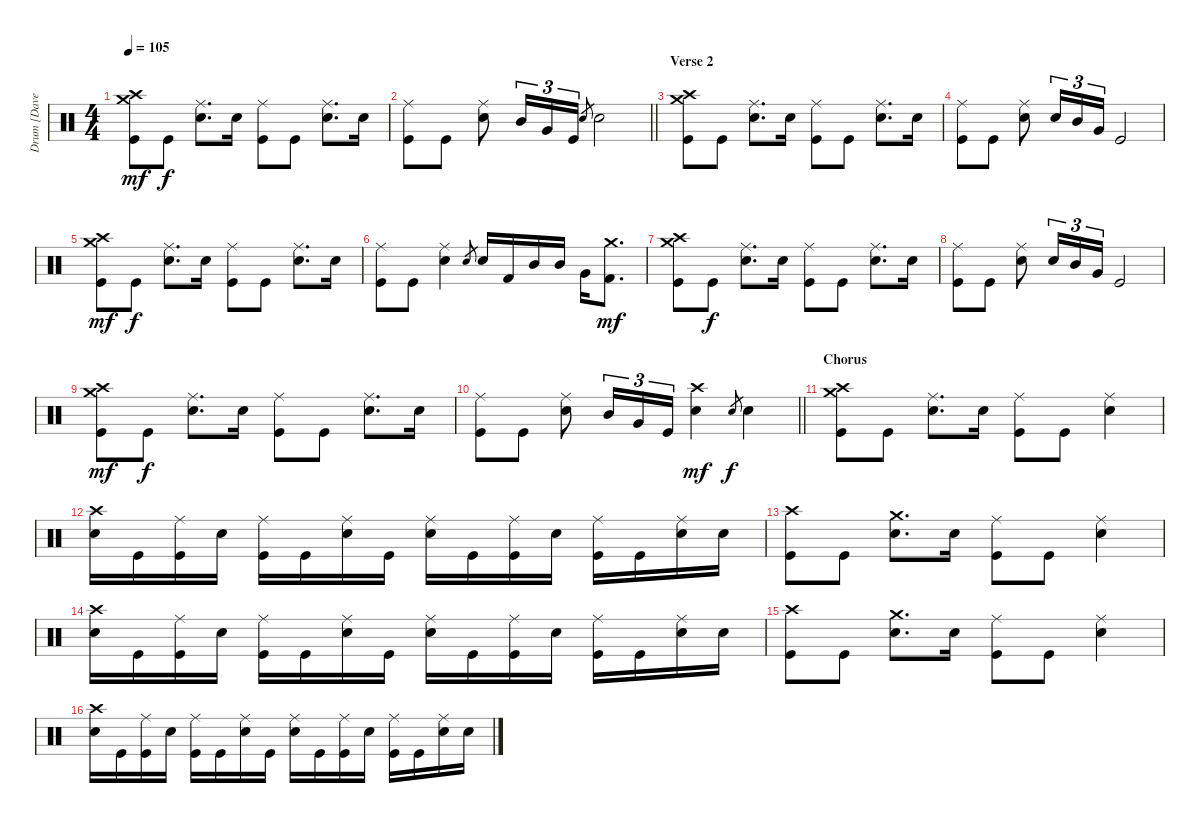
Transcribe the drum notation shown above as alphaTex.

\track ("Drum [Dave Grohl]" "Drum [Dave") {instrument percussion bank 84}
\staff {score}
\articulation defaults
\ts (4 4)
\tempo 105
\clef neutral
\ks c
("Crash high (hit)" "Crash medium (hit)" "Kick (hit)").8{dy mf} "Kick (hit)".8{dy f} ("Ride (middle)" "Electric Snare (hit)").8{d} "Electric Snare (hit)".16 ("Ride (middle)" "Kick (hit)").8 "Kick (hit)".8 ("Ride (middle)" "Electric Snare (hit)").8{d} "Electric Snare (hit)".16 |
\barLineRight lightlight
("Ride (middle)" "Kick (hit)").8 "Kick (hit)".8 ("Ride (middle)" "Electric Snare (hit)").8 "Mid Tom (hit)".16{tu (3 2)} "Very Low Tom (hit)".16{tu (3 2)} "Kick (hit)".16{tu (3 2)} "Electric Snare (hit)".8{gr} "Electric Snare (hit)".2 |
\section ("" "Verse 2")
("Crash high (hit)" "Crash medium (hit)" "Kick (hit)").8 "Kick (hit)".8 ("Ride (middle)" "Electric Snare (hit)").8{d} "Electric Snare (hit)".16 ("Ride (middle)" "Kick (hit)").8 "Kick (hit)".8 ("Ride (middle)" "Electric Snare (hit)").8{d} "Electric Snare (hit)".16 |
("Ride (middle)" "Kick (hit)").8 "Kick (hit)".8 ("Ride (middle)" "Electric Snare (hit)").8 "Electric Snare (hit)".16{tu (3 2)} "Mid Tom (hit)".16{tu (3 2)} "Very Low Tom (hit)".16{tu (3 2)} "Kick (hit)".2 |
("Crash high (hit)" "Crash medium (hit)" "Kick (hit)").8{dy mf} "Kick (hit)".8{dy f} ("Ride (middle)" "Electric Snare (hit)").8{d} "Electric Snare (hit)".16 ("Ride (middle)" "Kick (hit)").8 "Kick (hit)".8 ("Ride (middle)" "Electric Snare (hit)").8{d} "Electric Snare (hit)".16 |
("Ride (middle)" "Kick (hit)").8 "Kick (hit)".8 ("Ride (middle)" "Electric Snare (hit)").4 "Electric Snare (hit)".8{gr} "Electric Snare (hit)".16 "Kick (hit) 2".16 "Mid Tom (hit)".16 "Mid Tom (hit)".16 "Very Low Tom (hit)".16 ("Crash medium (hit)" "Kick (hit) 2").8{d dy mf} |
("Crash high (hit)" "Crash medium (hit)" "Kick (hit)").8 "Kick (hit)".8{dy f} ("Ride (middle)" "Electric Snare (hit)").8{d} "Electric Snare (hit)".16 ("Ride (middle)" "Kick (hit)").8 "Kick (hit)".8 ("Ride (middle)" "Electric Snare (hit)").8{d} "Electric Snare (hit)".16 |
("Ride (middle)" "Kick (hit)").8 "Kick (hit)".8 ("Ride (middle)" "Electric Snare (hit)").8 "Electric Snare (hit)".16{tu (3 2)} "Mid Tom (hit)".16{tu (3 2)} "Very Low Tom (hit)".16{tu (3 2)} "Kick (hit)".2 |
("Crash high (hit)" "Crash medium (hit)" "Kick (hit)").8{dy mf} "Kick (hit)".8{dy f} ("Ride (middle)" "Electric Snare (hit)").8{d} "Electric Snare (hit)".16 ("Ride (middle)" "Kick (hit)").8 "Kick (hit)".8 ("Ride (middle)" "Electric Snare (hit)").8{d} "Electric Snare (hit)".16 |
\barLineRight lightlight
("Ride (middle)" "Kick (hit)").8 "Kick (hit)".8 ("Ride (middle)" "Electric Snare (hit)").8 "Mid Tom (hit)".16{tu (3 2)} "Very Low Tom (hit)".16{tu (3 2)} "Kick (hit)".16{tu (3 2)} ("Crash high (hit)" "Electric Snare (hit)").4{dy mf} "Electric Snare (hit)".8{gr dy f} "Electric Snare (hit)".4 |
\section ("" "Chorus")
("Crash high (hit)" "Crash medium (hit)" "Kick (hit)").8 "Kick (hit)".8 ("Ride (middle)" "Electric Snare (hit)").8{d} "Electric Snare (hit)".16 ("Ride (middle)" "Kick (hit)").8 "Kick (hit)".8 ("Ride (middle)" "Electric Snare (hit)").4 |
("Crash high (hit)" "Electric Snare (hit)").16 "Kick (hit)".16 ("Ride (middle)" "Kick (hit)").16 "Electric Snare (hit)".16 ("Ride (middle)" "Kick (hit)").16 "Kick (hit)".16 ("Ride (middle)" "Electric Snare (hit)").16 "Kick (hit)".16 ("Ride (middle)" "Electric Snare (hit)").16 "Kick (hit)".16 ("Ride (middle)" "Kick (hit)").16 "Electric Snare (hit)".16 ("Ride (middle)" "Kick (hit)").16 "Kick (hit)".16 ("Ride (middle)" "Electric Snare (hit)").16 "Electric Snare (hit)".16 |
("Crash high (hit)" "Kick (hit)").8 "Kick (hit)".8 ("Crash medium (hit)" "Electric Snare (hit)").8{d} "Electric Snare (hit)".16 ("Ride (middle)" "Kick (hit)").8 "Kick (hit)".8 ("Ride (middle)" "Electric Snare (hit)").4 |
("Crash high (hit)" "Electric Snare (hit)").16 "Kick (hit)".16 ("Ride (middle)" "Kick (hit)").16 "Electric Snare (hit)".16 ("Ride (middle)" "Kick (hit)").16 "Kick (hit)".16 ("Ride (middle)" "Electric Snare (hit)").16 "Kick (hit)".16 ("Ride (middle)" "Electric Snare (hit)").16 "Kick (hit)".16 ("Ride (middle)" "Kick (hit)").16 "Electric Snare (hit)".16 ("Ride (middle)" "Kick (hit)").16 "Kick (hit)".16 ("Ride (middle)" "Electric Snare (hit)").16 "Electric Snare (hit)".16 |
("Crash high (hit)" "Kick (hit)").8 "Kick (hit)".8 ("Crash medium (hit)" "Electric Snare (hit)").8{d} "Electric Snare (hit)".16 ("Ride (middle)" "Kick (hit)").8 "Kick (hit)".8 ("Ride (middle)" "Electric Snare (hit)").4 |
("Crash high (hit)" "Electric Snare (hit)").16 "Kick (hit)".16 ("Ride (middle)" "Kick (hit)").16 "Electric Snare (hit)".16 ("Ride (middle)" "Kick (hit)").16 "Kick (hit)".16 ("Ride (middle)" "Electric Snare (hit)").16 "Kick (hit)".16 ("Ride (middle)" "Electric Snare (hit)").16 "Kick (hit)".16 ("Ride (middle)" "Kick (hit)").16 "Electric Snare (hit)".16 ("Ride (middle)" "Kick (hit)").16 "Kick (hit)".16 ("Ride (middle)" "Electric Snare (hit)").16 "Electric Snare (hit)".16
